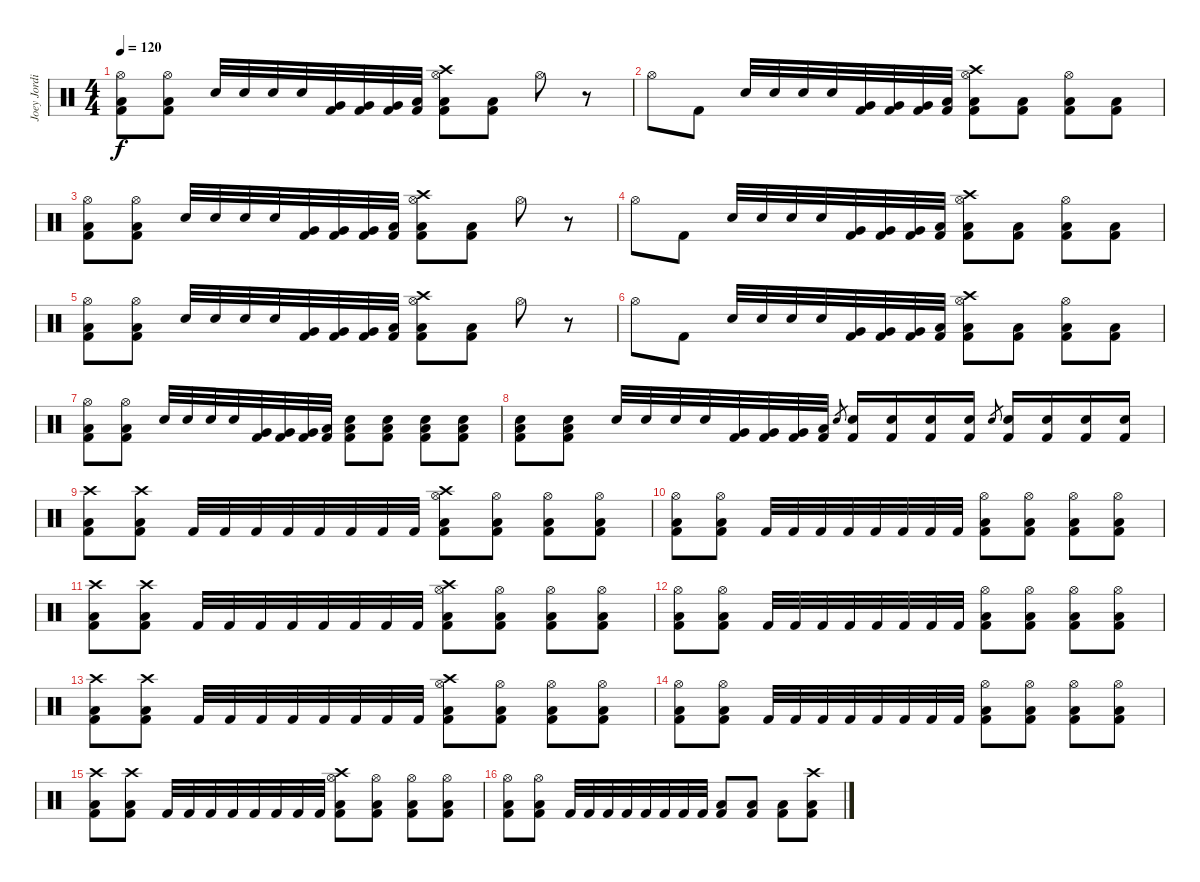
\track ("Joey Jordison   #1" "Joey Jordi") {instrument percussion}
\staff {score}
\articulation defaults
\ts (4 4)
\tempo 120
\clef neutral
\ks c
("Hi-Hat (open)" "Low Floor Tom (hit)" "Kick (hit) 2").8{dy f} ("Hi-Hat (open)" "Low Floor Tom (hit)" "Kick (hit) 2").8 "Electric Snare (hit)".32 "Electric Snare (hit)".32 "Electric Snare (hit)".32 "Electric Snare (hit)".32 ("Very Low Tom (hit)" "Kick (hit) 2").32 ("Very Low Tom (hit)" "Kick (hit) 2").32 ("Very Low Tom (hit)" "Kick (hit) 2").32 ("Low Floor Tom (hit)" "Kick (hit) 2").32 ("Crash high (hit)" "Hi-Hat (open)" "Low Floor Tom (hit)" "Kick (hit) 2").8 ("Low Floor Tom (hit)" "Kick (hit) 2").8 "Hi-Hat (open)".8 r.8 |
"Hi-Hat (open)".8 "Kick (hit) 2".8 "Electric Snare (hit)".32 "Electric Snare (hit)".32 "Electric Snare (hit)".32 "Electric Snare (hit)".32 ("Very Low Tom (hit)" "Kick (hit) 2").32 ("Very Low Tom (hit)" "Kick (hit) 2").32 ("Very Low Tom (hit)" "Kick (hit) 2").32 ("Low Floor Tom (hit)" "Kick (hit) 2").32 ("Hi-Hat (open)" "Crash high (hit)" "Low Floor Tom (hit)" "Kick (hit) 2").8 ("Low Floor Tom (hit)" "Kick (hit) 2").8 ("Hi-Hat (open)" "Low Floor Tom (hit)" "Kick (hit) 2").8 ("Low Floor Tom (hit)" "Kick (hit) 2").8 |
("Hi-Hat (open)" "Low Floor Tom (hit)" "Kick (hit) 2").8 ("Hi-Hat (open)" "Low Floor Tom (hit)" "Kick (hit) 2").8 "Electric Snare (hit)".32 "Electric Snare (hit)".32 "Electric Snare (hit)".32 "Electric Snare (hit)".32 ("Very Low Tom (hit)" "Kick (hit) 2").32 ("Very Low Tom (hit)" "Kick (hit) 2").32 ("Very Low Tom (hit)" "Kick (hit) 2").32 ("Low Floor Tom (hit)" "Kick (hit) 2").32 ("Hi-Hat (open)" "Crash high (hit)" "Low Floor Tom (hit)" "Kick (hit) 2").8 ("Low Floor Tom (hit)" "Kick (hit) 2").8 "Hi-Hat (open)".8 r.8 |
"Hi-Hat (open)".8 "Kick (hit) 2".8 "Electric Snare (hit)".32 "Electric Snare (hit)".32 "Electric Snare (hit)".32 "Electric Snare (hit)".32 ("Very Low Tom (hit)" "Kick (hit) 2").32 ("Very Low Tom (hit)" "Kick (hit) 2").32 ("Very Low Tom (hit)" "Kick (hit) 2").32 ("Low Floor Tom (hit)" "Kick (hit) 2").32 ("Hi-Hat (open)" "Crash high (hit)" "Low Floor Tom (hit)" "Kick (hit) 2").8 ("Low Floor Tom (hit)" "Kick (hit) 2").8 ("Hi-Hat (open)" "Low Floor Tom (hit)" "Kick (hit) 2").8 ("Low Floor Tom (hit)" "Kick (hit) 2").8 |
("Hi-Hat (open)" "Low Floor Tom (hit)" "Kick (hit) 2").8 ("Hi-Hat (open)" "Low Floor Tom (hit)" "Kick (hit) 2").8 "Electric Snare (hit)".32 "Electric Snare (hit)".32 "Electric Snare (hit)".32 "Electric Snare (hit)".32 ("Very Low Tom (hit)" "Kick (hit) 2").32 ("Very Low Tom (hit)" "Kick (hit) 2").32 ("Very Low Tom (hit)" "Kick (hit) 2").32 ("Low Floor Tom (hit)" "Kick (hit) 2").32 ("Hi-Hat (open)" "Crash high (hit)" "Low Floor Tom (hit)" "Kick (hit) 2").8 ("Low Floor Tom (hit)" "Kick (hit) 2").8 "Hi-Hat (open)".8 r.8 |
"Hi-Hat (open)".8 "Kick (hit) 2".8 "Electric Snare (hit)".32 "Electric Snare (hit)".32 "Electric Snare (hit)".32 "Electric Snare (hit)".32 ("Very Low Tom (hit)" "Kick (hit) 2").32 ("Very Low Tom (hit)" "Kick (hit) 2").32 ("Very Low Tom (hit)" "Kick (hit) 2").32 ("Low Floor Tom (hit)" "Kick (hit) 2").32 ("Hi-Hat (open)" "Crash high (hit)" "Low Floor Tom (hit)" "Kick (hit) 2").8 ("Low Floor Tom (hit)" "Kick (hit) 2").8 ("Hi-Hat (open)" "Low Floor Tom (hit)" "Kick (hit) 2").8 ("Low Floor Tom (hit)" "Kick (hit) 2").8 |
("Hi-Hat (open)" "Low Floor Tom (hit)" "Kick (hit) 2").8 ("Hi-Hat (open)" "Low Floor Tom (hit)" "Kick (hit) 2").8 "Electric Snare (hit)".32 "Electric Snare (hit)".32 "Electric Snare (hit)".32 "Electric Snare (hit)".32 ("Very Low Tom (hit)" "Kick (hit) 2").32 ("Very Low Tom (hit)" "Kick (hit) 2").32 ("Very Low Tom (hit)" "Kick (hit) 2").32 ("Low Floor Tom (hit)" "Kick (hit) 2").32 ("Low Floor Tom (hit)" "Electric Snare (hit)" "Kick (hit) 2").8 ("Low Floor Tom (hit)" "Electric Snare (hit)" "Kick (hit) 2").8 ("Low Floor Tom (hit)" "Electric Snare (hit)" "Kick (hit) 2").8 ("Low Floor Tom (hit)" "Electric Snare (hit)" "Kick (hit) 2").8 |
("Low Floor Tom (hit)" "Electric Snare (hit)" "Kick (hit) 2").8 ("Low Floor Tom (hit)" "Electric Snare (hit)" "Kick (hit) 2").8 "Electric Snare (hit)".32 "Electric Snare (hit)".32 "Electric Snare (hit)".32 "Electric Snare (hit)".32 ("Very Low Tom (hit)" "Kick (hit) 2").32 ("Very Low Tom (hit)" "Kick (hit) 2").32 ("Very Low Tom (hit)" "Kick (hit) 2").32 ("Low Floor Tom (hit)" "Kick (hit) 2").32 "Electric Snare (hit)".8{gr} ("Electric Snare (hit)" "Kick (hit) 2").16 ("Electric Snare (hit)" "Kick (hit) 2").16 ("Electric Snare (hit)" "Kick (hit) 2").16 ("Electric Snare (hit)" "Kick (hit) 2").16 "Electric Snare (hit)".8{gr} ("Electric Snare (hit)" "Kick (hit) 2").16 ("Electric Snare (hit)" "Kick (hit) 2").16 ("Electric Snare (hit)" "Kick (hit) 2").16 ("Electric Snare (hit)" "Kick (hit) 2").16 |
("Crash high (hit)" "Low Floor Tom (hit)" "Kick (hit) 2").8 ("Crash high (hit)" "Low Floor Tom (hit)" "Kick (hit) 2").8 "Kick (hit) 2".32 "Kick (hit) 2".32 "Kick (hit) 2".32 "Kick (hit) 2".32 "Kick (hit) 2".32 "Kick (hit) 2".32 "Kick (hit) 2".32 "Kick (hit) 2".32 ("Hi-Hat (open)" "Crash high (hit)" "Low Floor Tom (hit)" "Kick (hit) 2").8 ("Hi-Hat (open)" "Low Floor Tom (hit)" "Kick (hit) 2").8 ("Hi-Hat (open)" "Low Floor Tom (hit)" "Kick (hit) 2").8 ("Hi-Hat (open)" "Low Floor Tom (hit)" "Kick (hit) 2").8 |
("Hi-Hat (open)" "Low Floor Tom (hit)" "Kick (hit) 2").8 ("Hi-Hat (open)" "Low Floor Tom (hit)" "Kick (hit) 2").8 "Kick (hit) 2".32 "Kick (hit) 2".32 "Kick (hit) 2".32 "Kick (hit) 2".32 "Kick (hit) 2".32 "Kick (hit) 2".32 "Kick (hit) 2".32 "Kick (hit) 2".32 ("Hi-Hat (open)" "Low Floor Tom (hit)" "Kick (hit) 2").8 ("Hi-Hat (open)" "Low Floor Tom (hit)" "Kick (hit) 2").8 ("Hi-Hat (open)" "Low Floor Tom (hit)" "Kick (hit) 2").8 ("Hi-Hat (open)" "Low Floor Tom (hit)" "Kick (hit) 2").8 |
("Crash high (hit)" "Low Floor Tom (hit)" "Kick (hit) 2").8 ("Crash high (hit)" "Low Floor Tom (hit)" "Kick (hit) 2").8 "Kick (hit) 2".32 "Kick (hit) 2".32 "Kick (hit) 2".32 "Kick (hit) 2".32 "Kick (hit) 2".32 "Kick (hit) 2".32 "Kick (hit) 2".32 "Kick (hit) 2".32 ("Hi-Hat (open)" "Crash high (hit)" "Low Floor Tom (hit)" "Kick (hit) 2").8 ("Hi-Hat (open)" "Low Floor Tom (hit)" "Kick (hit) 2").8 ("Hi-Hat (open)" "Low Floor Tom (hit)" "Kick (hit) 2").8 ("Hi-Hat (open)" "Low Floor Tom (hit)" "Kick (hit) 2").8 |
("Hi-Hat (open)" "Low Floor Tom (hit)" "Kick (hit) 2").8 ("Hi-Hat (open)" "Low Floor Tom (hit)" "Kick (hit) 2").8 "Kick (hit) 2".32 "Kick (hit) 2".32 "Kick (hit) 2".32 "Kick (hit) 2".32 "Kick (hit) 2".32 "Kick (hit) 2".32 "Kick (hit) 2".32 "Kick (hit) 2".32 ("Hi-Hat (open)" "Low Floor Tom (hit)" "Kick (hit) 2").8 ("Hi-Hat (open)" "Low Floor Tom (hit)" "Kick (hit) 2").8 ("Hi-Hat (open)" "Low Floor Tom (hit)" "Kick (hit) 2").8 ("Hi-Hat (open)" "Low Floor Tom (hit)" "Kick (hit) 2").8 |
("Crash high (hit)" "Low Floor Tom (hit)" "Kick (hit) 2").8 ("Crash high (hit)" "Low Floor Tom (hit)" "Kick (hit) 2").8 "Kick (hit) 2".32 "Kick (hit) 2".32 "Kick (hit) 2".32 "Kick (hit) 2".32 "Kick (hit) 2".32 "Kick (hit) 2".32 "Kick (hit) 2".32 "Kick (hit) 2".32 ("Hi-Hat (open)" "Crash high (hit)" "Low Floor Tom (hit)" "Kick (hit) 2").8 ("Hi-Hat (open)" "Low Floor Tom (hit)" "Kick (hit) 2").8 ("Hi-Hat (open)" "Low Floor Tom (hit)" "Kick (hit) 2").8 ("Hi-Hat (open)" "Low Floor Tom (hit)" "Kick (hit) 2").8 |
("Hi-Hat (open)" "Low Floor Tom (hit)" "Kick (hit) 2").8 ("Hi-Hat (open)" "Low Floor Tom (hit)" "Kick (hit) 2").8 "Kick (hit) 2".32 "Kick (hit) 2".32 "Kick (hit) 2".32 "Kick (hit) 2".32 "Kick (hit) 2".32 "Kick (hit) 2".32 "Kick (hit) 2".32 "Kick (hit) 2".32 ("Hi-Hat (open)" "Low Floor Tom (hit)" "Kick (hit) 2").8 ("Hi-Hat (open)" "Low Floor Tom (hit)" "Kick (hit) 2").8 ("Hi-Hat (open)" "Low Floor Tom (hit)" "Kick (hit) 2").8 ("Hi-Hat (open)" "Low Floor Tom (hit)" "Kick (hit) 2").8 |
("Crash high (hit)" "Low Floor Tom (hit)" "Kick (hit) 2").8 ("Crash high (hit)" "Low Floor Tom (hit)" "Kick (hit) 2").8 "Kick (hit) 2".32 "Kick (hit) 2".32 "Kick (hit) 2".32 "Kick (hit) 2".32 "Kick (hit) 2".32 "Kick (hit) 2".32 "Kick (hit) 2".32 "Kick (hit) 2".32 ("Hi-Hat (open)" "Crash high (hit)" "Low Floor Tom (hit)" "Kick (hit) 2").8 ("Hi-Hat (open)" "Low Floor Tom (hit)" "Kick (hit) 2").8 ("Hi-Hat (open)" "Low Floor Tom (hit)" "Kick (hit) 2").8 ("Hi-Hat (open)" "Low Floor Tom (hit)" "Kick (hit) 2").8 |
("Hi-Hat (open)" "Low Floor Tom (hit)" "Kick (hit) 2").8 ("Hi-Hat (open)" "Low Floor Tom (hit)" "Kick (hit) 2").8 "Kick (hit) 2".32 "Kick (hit) 2".32 "Kick (hit) 2".32 "Kick (hit) 2".32 "Kick (hit) 2".32 "Kick (hit) 2".32 "Kick (hit) 2".32 "Kick (hit) 2".32 ("Low Floor Tom (hit)" "Kick (hit) 2").8 ("Low Floor Tom (hit)" "Kick (hit) 2").8 ("Low Floor Tom (hit)" "Kick (hit) 2").8 ("Crash high (hit)" "Low Floor Tom (hit)" "Kick (hit) 2").8
